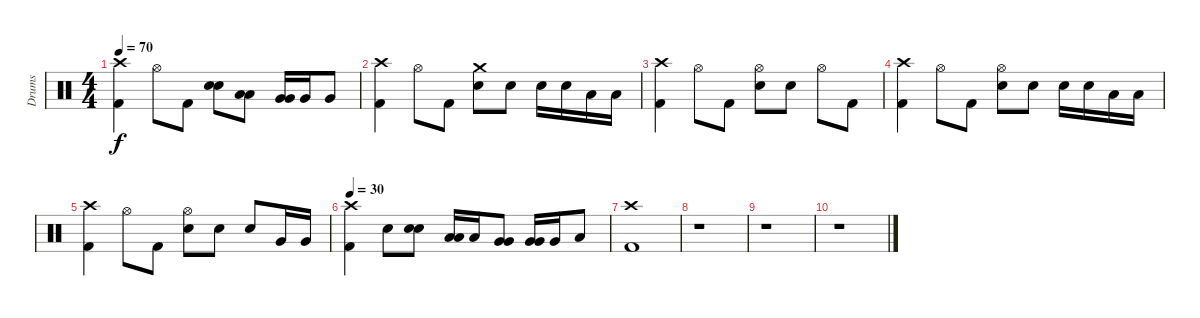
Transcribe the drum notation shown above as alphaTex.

\track ("Drums" "Drums") {instrument percussion}
\staff {score}
\articulation defaults
\ts (4 4)
\tempo 70
\clef neutral
\ks c
("Crash high (hit)" "Kick (hit) 2").4{dy f} "Hi-Hat (open)".8 "Kick (hit) 2".8 ("Electric Snare (hit)" "Electric Snare (hit)").8{bu 60} ("Low Tom (hit)" "Low Tom (hit)").8{bu 60} ("Very Low Tom (hit)" "Very Low Tom (hit)").16{bu 60} "Very Low Tom (hit)".16 "Very Low Tom (hit)".8 |
("Crash high (hit)" "Kick (hit) 2").4 "Hi-Hat (open)".8 "Kick (hit) 2".8 ("Crash medium (hit)" "Electric Snare (hit)").8 "Electric Snare (hit)".8 "Electric Snare (hit)".16 "Electric Snare (hit)".16 "Low Tom (hit)".16 "Low Tom (hit)".16 |
("Crash high (hit)" "Kick (hit) 2").4 "Hi-Hat (open)".8 "Kick (hit) 2".8 ("Hi-Hat (open)" "Electric Snare (hit)").8 "Electric Snare (hit)".8 "Hi-Hat (open)".8 "Kick (hit) 2".8 |
("Crash high (hit)" "Kick (hit) 2").4 "Hi-Hat (open)".8 "Kick (hit) 2".8 ("Hi-Hat (open)" "Electric Snare (hit)").8 "Electric Snare (hit)".8 "Electric Snare (hit)".16 "Electric Snare (hit)".16 "Low Tom (hit)".16 "Low Tom (hit)".16 |
("Crash high (hit)" "Kick (hit) 2").4 "Hi-Hat (open)".8 "Kick (hit) 2".8 ("Hi-Hat (open)" "Electric Snare (hit)").8 "Electric Snare (hit)".8 "Electric Snare (hit)".8 "Very Low Tom (hit)".16 "Very Low Tom (hit)".16 |
\tempo 30
("Crash high (hit)" "Kick (hit) 2").4 "Electric Snare (hit)".8 ("Electric Snare (hit)" "Electric Snare (hit)").8{bu 60} ("Low Tom (hit)" "Low Tom (hit)").16{bu 60} "Low Tom (hit)".16 ("Very Low Tom (hit)" "Very Low Tom (hit)").8{bu 60} ("Very Low Tom (hit)" "Very Low Tom (hit)").16{bu 60} "Very Low Tom (hit)".16 "Low Floor Tom (hit)".8 |
("Crash high (hit)" "Kick (hit) 2").1 |
r.1 |
r.1 |
r.1
